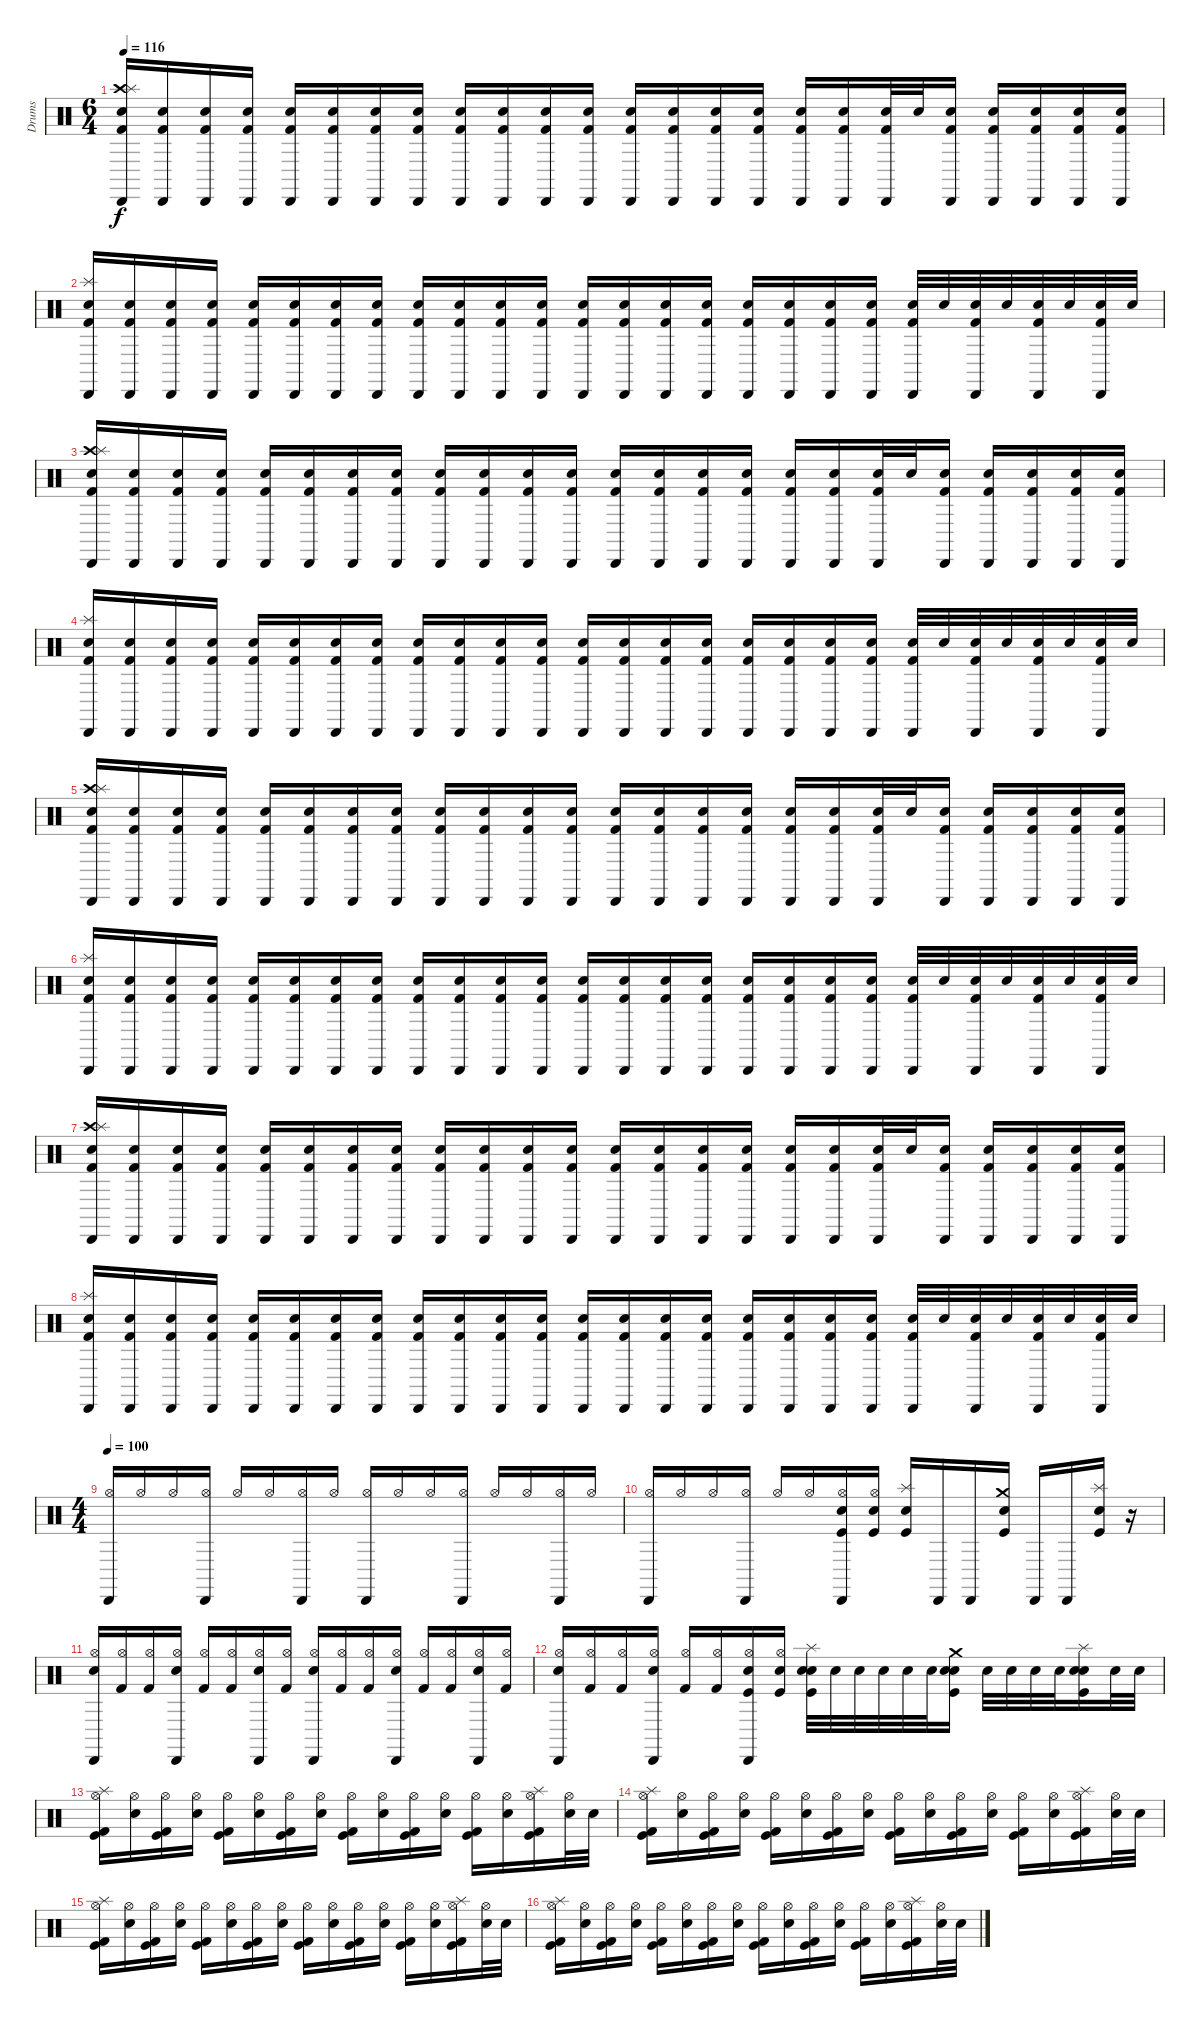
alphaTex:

\track ("Drums" "Drums") {instrument percussion}
\staff {score}
\articulation defaults
\ts (6 4)
\tempo 116
\clef neutral
\ks c
("Crash high (hit)" "Splash (hit)" "Cabasa (hit)" "Kick (hit) 2" "Electric Snare (hit)").16{dy f} ("Cabasa (hit)" "Kick (hit) 2" "Electric Snare (hit)").16 ("Cabasa (hit)" "Kick (hit) 2" "Electric Snare (hit)").16 ("Cabasa (hit)" "Kick (hit) 2" "Electric Snare (hit)").16 ("Cabasa (hit)" "Kick (hit) 2" "Electric Snare (hit)").16 ("Cabasa (hit)" "Kick (hit) 2" "Electric Snare (hit)").16 ("Cabasa (hit)" "Kick (hit) 2" "Electric Snare (hit)").16 ("Cabasa (hit)" "Kick (hit) 2" "Electric Snare (hit)").16 ("Cabasa (hit)" "Kick (hit) 2" "Electric Snare (hit)").16 ("Cabasa (hit)" "Kick (hit) 2" "Electric Snare (hit)").16 ("Cabasa (hit)" "Kick (hit) 2" "Electric Snare (hit)").16 ("Cabasa (hit)" "Kick (hit) 2" "Electric Snare (hit)").16 ("Cabasa (hit)" "Kick (hit) 2" "Electric Snare (hit)").16 ("Cabasa (hit)" "Kick (hit) 2" "Electric Snare (hit)").16 ("Cabasa (hit)" "Kick (hit) 2" "Electric Snare (hit)").16 ("Cabasa (hit)" "Kick (hit) 2" "Electric Snare (hit)").16 ("Cabasa (hit)" "Kick (hit) 2" "Electric Snare (hit)").16 ("Cabasa (hit)" "Kick (hit) 2" "Electric Snare (hit)").16 ("Cabasa (hit)" "Kick (hit) 2" "Electric Snare (hit)").32 "Electric Snare (hit)".32 ("Cabasa (hit)" "Kick (hit) 2" "Electric Snare (hit)").16 ("Cabasa (hit)" "Kick (hit) 2" "Electric Snare (hit)").16 ("Cabasa (hit)" "Kick (hit) 2" "Electric Snare (hit)").16 ("Cabasa (hit)" "Kick (hit) 2" "Electric Snare (hit)").16 ("Cabasa (hit)" "Kick (hit) 2" "Electric Snare (hit)").16 |
("Cabasa (hit)" "Splash (hit)" "Electric Snare (hit)" "Kick (hit) 2").16 ("Cabasa (hit)" "Kick (hit) 2" "Electric Snare (hit)").16 ("Cabasa (hit)" "Kick (hit) 2" "Electric Snare (hit)").16 ("Cabasa (hit)" "Kick (hit) 2" "Electric Snare (hit)").16 ("Cabasa (hit)" "Kick (hit) 2" "Electric Snare (hit)").16 ("Cabasa (hit)" "Kick (hit) 2" "Electric Snare (hit)").16 ("Cabasa (hit)" "Kick (hit) 2" "Electric Snare (hit)").16 ("Cabasa (hit)" "Kick (hit) 2" "Electric Snare (hit)").16 ("Cabasa (hit)" "Kick (hit) 2" "Electric Snare (hit)").16 ("Cabasa (hit)" "Kick (hit) 2" "Electric Snare (hit)").16 ("Cabasa (hit)" "Kick (hit) 2" "Electric Snare (hit)").16 ("Cabasa (hit)" "Kick (hit) 2" "Electric Snare (hit)").16 ("Cabasa (hit)" "Kick (hit) 2" "Electric Snare (hit)").16 ("Cabasa (hit)" "Kick (hit) 2" "Electric Snare (hit)").16 ("Cabasa (hit)" "Kick (hit) 2" "Electric Snare (hit)").16 ("Cabasa (hit)" "Kick (hit) 2" "Electric Snare (hit)").16 ("Cabasa (hit)" "Kick (hit) 2" "Electric Snare (hit)").16 ("Cabasa (hit)" "Kick (hit) 2" "Electric Snare (hit)").16 ("Cabasa (hit)" "Kick (hit) 2" "Electric Snare (hit)").16 ("Cabasa (hit)" "Kick (hit) 2" "Electric Snare (hit)").16 ("Cabasa (hit)" "Kick (hit) 2" "Electric Snare (hit)").32 "Electric Snare (hit)".32 ("Cabasa (hit)" "Kick (hit) 2" "Electric Snare (hit)").32 "Electric Snare (hit)".32 ("Cabasa (hit)" "Kick (hit) 2" "Electric Snare (hit)").32 "Electric Snare (hit)".32 ("Cabasa (hit)" "Kick (hit) 2" "Electric Snare (hit)").32 "Electric Snare (hit)".32 |
("Crash high (hit)" "Splash (hit)" "Cabasa (hit)" "Kick (hit) 2" "Electric Snare (hit)").16 ("Cabasa (hit)" "Kick (hit) 2" "Electric Snare (hit)").16 ("Cabasa (hit)" "Kick (hit) 2" "Electric Snare (hit)").16 ("Cabasa (hit)" "Kick (hit) 2" "Electric Snare (hit)").16 ("Cabasa (hit)" "Kick (hit) 2" "Electric Snare (hit)").16 ("Cabasa (hit)" "Kick (hit) 2" "Electric Snare (hit)").16 ("Cabasa (hit)" "Kick (hit) 2" "Electric Snare (hit)").16 ("Cabasa (hit)" "Kick (hit) 2" "Electric Snare (hit)").16 ("Cabasa (hit)" "Kick (hit) 2" "Electric Snare (hit)").16 ("Cabasa (hit)" "Kick (hit) 2" "Electric Snare (hit)").16 ("Cabasa (hit)" "Kick (hit) 2" "Electric Snare (hit)").16 ("Cabasa (hit)" "Kick (hit) 2" "Electric Snare (hit)").16 ("Cabasa (hit)" "Kick (hit) 2" "Electric Snare (hit)").16 ("Cabasa (hit)" "Kick (hit) 2" "Electric Snare (hit)").16 ("Cabasa (hit)" "Kick (hit) 2" "Electric Snare (hit)").16 ("Cabasa (hit)" "Kick (hit) 2" "Electric Snare (hit)").16 ("Cabasa (hit)" "Kick (hit) 2" "Electric Snare (hit)").16 ("Cabasa (hit)" "Kick (hit) 2" "Electric Snare (hit)").16 ("Cabasa (hit)" "Kick (hit) 2" "Electric Snare (hit)").32 "Electric Snare (hit)".32 ("Cabasa (hit)" "Kick (hit) 2" "Electric Snare (hit)").16 ("Cabasa (hit)" "Kick (hit) 2" "Electric Snare (hit)").16 ("Cabasa (hit)" "Kick (hit) 2" "Electric Snare (hit)").16 ("Cabasa (hit)" "Kick (hit) 2" "Electric Snare (hit)").16 ("Cabasa (hit)" "Kick (hit) 2" "Electric Snare (hit)").16 |
("Cabasa (hit)" "Splash (hit)" "Electric Snare (hit)" "Kick (hit) 2").16 ("Cabasa (hit)" "Kick (hit) 2" "Electric Snare (hit)").16 ("Cabasa (hit)" "Kick (hit) 2" "Electric Snare (hit)").16 ("Cabasa (hit)" "Kick (hit) 2" "Electric Snare (hit)").16 ("Cabasa (hit)" "Kick (hit) 2" "Electric Snare (hit)").16 ("Cabasa (hit)" "Kick (hit) 2" "Electric Snare (hit)").16 ("Cabasa (hit)" "Kick (hit) 2" "Electric Snare (hit)").16 ("Cabasa (hit)" "Kick (hit) 2" "Electric Snare (hit)").16 ("Cabasa (hit)" "Kick (hit) 2" "Electric Snare (hit)").16 ("Cabasa (hit)" "Kick (hit) 2" "Electric Snare (hit)").16 ("Cabasa (hit)" "Kick (hit) 2" "Electric Snare (hit)").16 ("Cabasa (hit)" "Kick (hit) 2" "Electric Snare (hit)").16 ("Cabasa (hit)" "Kick (hit) 2" "Electric Snare (hit)").16 ("Cabasa (hit)" "Kick (hit) 2" "Electric Snare (hit)").16 ("Cabasa (hit)" "Kick (hit) 2" "Electric Snare (hit)").16 ("Cabasa (hit)" "Kick (hit) 2" "Electric Snare (hit)").16 ("Cabasa (hit)" "Kick (hit) 2" "Electric Snare (hit)").16 ("Cabasa (hit)" "Kick (hit) 2" "Electric Snare (hit)").16 ("Cabasa (hit)" "Kick (hit) 2" "Electric Snare (hit)").16 ("Cabasa (hit)" "Kick (hit) 2" "Electric Snare (hit)").16 ("Cabasa (hit)" "Kick (hit) 2" "Electric Snare (hit)").32 "Electric Snare (hit)".32 ("Cabasa (hit)" "Kick (hit) 2" "Electric Snare (hit)").32 "Electric Snare (hit)".32 ("Cabasa (hit)" "Kick (hit) 2" "Electric Snare (hit)").32 "Electric Snare (hit)".32 ("Cabasa (hit)" "Kick (hit) 2" "Electric Snare (hit)").32 "Electric Snare (hit)".32 |
("Crash high (hit)" "Splash (hit)" "Cabasa (hit)" "Kick (hit) 2" "Electric Snare (hit)").16 ("Cabasa (hit)" "Kick (hit) 2" "Electric Snare (hit)").16 ("Cabasa (hit)" "Kick (hit) 2" "Electric Snare (hit)").16 ("Cabasa (hit)" "Kick (hit) 2" "Electric Snare (hit)").16 ("Cabasa (hit)" "Kick (hit) 2" "Electric Snare (hit)").16 ("Cabasa (hit)" "Kick (hit) 2" "Electric Snare (hit)").16 ("Cabasa (hit)" "Kick (hit) 2" "Electric Snare (hit)").16 ("Cabasa (hit)" "Kick (hit) 2" "Electric Snare (hit)").16 ("Cabasa (hit)" "Kick (hit) 2" "Electric Snare (hit)").16 ("Cabasa (hit)" "Kick (hit) 2" "Electric Snare (hit)").16 ("Cabasa (hit)" "Kick (hit) 2" "Electric Snare (hit)").16 ("Cabasa (hit)" "Kick (hit) 2" "Electric Snare (hit)").16 ("Cabasa (hit)" "Kick (hit) 2" "Electric Snare (hit)").16 ("Cabasa (hit)" "Kick (hit) 2" "Electric Snare (hit)").16 ("Cabasa (hit)" "Kick (hit) 2" "Electric Snare (hit)").16 ("Cabasa (hit)" "Kick (hit) 2" "Electric Snare (hit)").16 ("Cabasa (hit)" "Kick (hit) 2" "Electric Snare (hit)").16 ("Cabasa (hit)" "Kick (hit) 2" "Electric Snare (hit)").16 ("Cabasa (hit)" "Kick (hit) 2" "Electric Snare (hit)").32 "Electric Snare (hit)".32 ("Cabasa (hit)" "Kick (hit) 2" "Electric Snare (hit)").16 ("Cabasa (hit)" "Kick (hit) 2" "Electric Snare (hit)").16 ("Cabasa (hit)" "Kick (hit) 2" "Electric Snare (hit)").16 ("Cabasa (hit)" "Kick (hit) 2" "Electric Snare (hit)").16 ("Cabasa (hit)" "Kick (hit) 2" "Electric Snare (hit)").16 |
("Cabasa (hit)" "Splash (hit)" "Electric Snare (hit)" "Kick (hit) 2").16 ("Cabasa (hit)" "Kick (hit) 2" "Electric Snare (hit)").16 ("Cabasa (hit)" "Kick (hit) 2" "Electric Snare (hit)").16 ("Cabasa (hit)" "Kick (hit) 2" "Electric Snare (hit)").16 ("Cabasa (hit)" "Kick (hit) 2" "Electric Snare (hit)").16 ("Cabasa (hit)" "Kick (hit) 2" "Electric Snare (hit)").16 ("Cabasa (hit)" "Kick (hit) 2" "Electric Snare (hit)").16 ("Cabasa (hit)" "Kick (hit) 2" "Electric Snare (hit)").16 ("Cabasa (hit)" "Kick (hit) 2" "Electric Snare (hit)").16 ("Cabasa (hit)" "Kick (hit) 2" "Electric Snare (hit)").16 ("Cabasa (hit)" "Kick (hit) 2" "Electric Snare (hit)").16 ("Cabasa (hit)" "Kick (hit) 2" "Electric Snare (hit)").16 ("Cabasa (hit)" "Kick (hit) 2" "Electric Snare (hit)").16 ("Cabasa (hit)" "Kick (hit) 2" "Electric Snare (hit)").16 ("Cabasa (hit)" "Kick (hit) 2" "Electric Snare (hit)").16 ("Cabasa (hit)" "Kick (hit) 2" "Electric Snare (hit)").16 ("Cabasa (hit)" "Kick (hit) 2" "Electric Snare (hit)").16 ("Cabasa (hit)" "Kick (hit) 2" "Electric Snare (hit)").16 ("Cabasa (hit)" "Kick (hit) 2" "Electric Snare (hit)").16 ("Cabasa (hit)" "Kick (hit) 2" "Electric Snare (hit)").16 ("Cabasa (hit)" "Kick (hit) 2" "Electric Snare (hit)").32 "Electric Snare (hit)".32 ("Cabasa (hit)" "Kick (hit) 2" "Electric Snare (hit)").32 "Electric Snare (hit)".32 ("Cabasa (hit)" "Kick (hit) 2" "Electric Snare (hit)").32 "Electric Snare (hit)".32 ("Cabasa (hit)" "Kick (hit) 2" "Electric Snare (hit)").32 "Electric Snare (hit)".32 |
("Crash high (hit)" "Splash (hit)" "Cabasa (hit)" "Kick (hit) 2" "Electric Snare (hit)").16 ("Cabasa (hit)" "Kick (hit) 2" "Electric Snare (hit)").16 ("Cabasa (hit)" "Kick (hit) 2" "Electric Snare (hit)").16 ("Cabasa (hit)" "Kick (hit) 2" "Electric Snare (hit)").16 ("Cabasa (hit)" "Kick (hit) 2" "Electric Snare (hit)").16 ("Cabasa (hit)" "Kick (hit) 2" "Electric Snare (hit)").16 ("Cabasa (hit)" "Kick (hit) 2" "Electric Snare (hit)").16 ("Cabasa (hit)" "Kick (hit) 2" "Electric Snare (hit)").16 ("Cabasa (hit)" "Kick (hit) 2" "Electric Snare (hit)").16 ("Cabasa (hit)" "Kick (hit) 2" "Electric Snare (hit)").16 ("Cabasa (hit)" "Kick (hit) 2" "Electric Snare (hit)").16 ("Cabasa (hit)" "Kick (hit) 2" "Electric Snare (hit)").16 ("Cabasa (hit)" "Kick (hit) 2" "Electric Snare (hit)").16 ("Cabasa (hit)" "Kick (hit) 2" "Electric Snare (hit)").16 ("Cabasa (hit)" "Kick (hit) 2" "Electric Snare (hit)").16 ("Cabasa (hit)" "Kick (hit) 2" "Electric Snare (hit)").16 ("Cabasa (hit)" "Kick (hit) 2" "Electric Snare (hit)").16 ("Cabasa (hit)" "Kick (hit) 2" "Electric Snare (hit)").16 ("Cabasa (hit)" "Kick (hit) 2" "Electric Snare (hit)").32 "Electric Snare (hit)".32 ("Cabasa (hit)" "Kick (hit) 2" "Electric Snare (hit)").16 ("Cabasa (hit)" "Kick (hit) 2" "Electric Snare (hit)").16 ("Cabasa (hit)" "Kick (hit) 2" "Electric Snare (hit)").16 ("Cabasa (hit)" "Kick (hit) 2" "Electric Snare (hit)").16 ("Cabasa (hit)" "Kick (hit) 2" "Electric Snare (hit)").16 |
("Cabasa (hit)" "Splash (hit)" "Electric Snare (hit)" "Kick (hit) 2").16 ("Cabasa (hit)" "Kick (hit) 2" "Electric Snare (hit)").16 ("Cabasa (hit)" "Kick (hit) 2" "Electric Snare (hit)").16 ("Cabasa (hit)" "Kick (hit) 2" "Electric Snare (hit)").16 ("Cabasa (hit)" "Kick (hit) 2" "Electric Snare (hit)").16 ("Cabasa (hit)" "Kick (hit) 2" "Electric Snare (hit)").16 ("Cabasa (hit)" "Kick (hit) 2" "Electric Snare (hit)").16 ("Cabasa (hit)" "Kick (hit) 2" "Electric Snare (hit)").16 ("Cabasa (hit)" "Kick (hit) 2" "Electric Snare (hit)").16 ("Cabasa (hit)" "Kick (hit) 2" "Electric Snare (hit)").16 ("Cabasa (hit)" "Kick (hit) 2" "Electric Snare (hit)").16 ("Cabasa (hit)" "Kick (hit) 2" "Electric Snare (hit)").16 ("Cabasa (hit)" "Kick (hit) 2" "Electric Snare (hit)").16 ("Cabasa (hit)" "Kick (hit) 2" "Electric Snare (hit)").16 ("Cabasa (hit)" "Kick (hit) 2" "Electric Snare (hit)").16 ("Cabasa (hit)" "Kick (hit) 2" "Electric Snare (hit)").16 ("Cabasa (hit)" "Kick (hit) 2" "Electric Snare (hit)").16 ("Cabasa (hit)" "Kick (hit) 2" "Electric Snare (hit)").16 ("Cabasa (hit)" "Kick (hit) 2" "Electric Snare (hit)").16 ("Cabasa (hit)" "Kick (hit) 2" "Electric Snare (hit)").16 ("Cabasa (hit)" "Kick (hit) 2" "Electric Snare (hit)").32 "Electric Snare (hit)".32 ("Cabasa (hit)" "Kick (hit) 2" "Electric Snare (hit)").32 "Electric Snare (hit)".32 ("Cabasa (hit)" "Kick (hit) 2" "Electric Snare (hit)").32 "Electric Snare (hit)".32 ("Cabasa (hit)" "Kick (hit) 2" "Electric Snare (hit)").32 "Electric Snare (hit)".32 |
\ts (4 4)
\tempo 100
("Cabasa (hit)" "Hi-Hat (open)").16 "Hi-Hat (open)".16 "Hi-Hat (open)".16 ("Cabasa (hit)" "Hi-Hat (open)").16 "Hi-Hat (open)".16 "Hi-Hat (open)".16 ("Cabasa (hit)" "Hi-Hat (open)").16 "Hi-Hat (open)".16 ("Cabasa (hit)" "Hi-Hat (open)").16 "Hi-Hat (open)".16 "Hi-Hat (open)".16 ("Cabasa (hit)" "Hi-Hat (open)").16 "Hi-Hat (open)".16 "Hi-Hat (open)".16 ("Cabasa (hit)" "Hi-Hat (open)").16 "Hi-Hat (open)".16 |
("Cabasa (hit)" "Hi-Hat (open)").16 "Hi-Hat (open)".16 "Hi-Hat (open)".16 ("Cabasa (hit)" "Hi-Hat (open)").16 "Hi-Hat (open)".16 "Hi-Hat (open)".16 ("Cabasa (hit)" "Hi-Hat (open)" "Electric Snare (hit)" "Kick (hit)").16 ("Hi-Hat (open)" "Electric Snare (hit)" "Kick (hit)").16 ("Kick (hit)" "Snare (hit) 2" "Splash (hit)").16 "Cabasa (hit)".16 "Cabasa (hit)".16 ("Kick (hit)" "Crash medium (hit)" "Snare (hit) 2").16 "Cabasa (hit)".16 "Cabasa (hit)".16 ("Kick (hit)" "Splash (hit)" "Snare (hit) 2").16 r.16 |
("Electric Snare (hit)" "Cabasa (hit)" "Hi-Hat (open)").16 ("Kick (hit) 2" "Hi-Hat (open)").16 ("Kick (hit) 2" "Hi-Hat (open)").16 ("Electric Snare (hit)" "Cabasa (hit)" "Hi-Hat (open)").16 ("Kick (hit) 2" "Hi-Hat (open)").16 ("Kick (hit) 2" "Hi-Hat (open)").16 ("Electric Snare (hit)" "Cabasa (hit)" "Hi-Hat (open)").16 ("Kick (hit) 2" "Hi-Hat (open)").16 ("Electric Snare (hit)" "Cabasa (hit)" "Hi-Hat (open)").16 ("Kick (hit) 2" "Hi-Hat (open)").16 ("Kick (hit) 2" "Hi-Hat (open)").16 ("Electric Snare (hit)" "Cabasa (hit)" "Hi-Hat (open)").16 ("Kick (hit) 2" "Hi-Hat (open)").16 ("Kick (hit) 2" "Hi-Hat (open)").16 ("Electric Snare (hit)" "Cabasa (hit)" "Hi-Hat (open)").16 ("Kick (hit) 2" "Hi-Hat (open)").16 |
("Electric Snare (hit)" "Cabasa (hit)" "Hi-Hat (open)").16 ("Kick (hit) 2" "Hi-Hat (open)").16 ("Kick (hit) 2" "Hi-Hat (open)").16 ("Electric Snare (hit)" "Cabasa (hit)" "Hi-Hat (open)").16 ("Kick (hit) 2" "Hi-Hat (open)").16 ("Kick (hit) 2" "Hi-Hat (open)").16 ("Cabasa (hit)" "Hi-Hat (open)" "Electric Snare (hit)" "Kick (hit)").16 ("Hi-Hat (open)" "Electric Snare (hit)" "Kick (hit)").16 ("Electric Snare (hit)" "Kick (hit)" "Snare (hit) 2" "Splash (hit)").32 "Electric Snare (hit)".32 "Electric Snare (hit)".32 "Electric Snare (hit)".32 "Electric Snare (hit)".32 "Electric Snare (hit)".32 ("Electric Snare (hit)" "Kick (hit)" "Crash medium (hit)" "Snare (hit) 2").16 "Electric Snare (hit)".32 "Electric Snare (hit)".32 "Electric Snare (hit)".32 "Electric Snare (hit)".32 ("Electric Snare (hit)" "Kick (hit)" "Splash (hit)" "Snare (hit) 2").16 "Electric Snare (hit)".32 "Electric Snare (hit)".32 |
("Splash (hit)" "Hi-Hat (open)" "Kick (hit)" "Kick (hit) 2").16 ("Hi-Hat (open)" "Snare (hit) 2").16 ("Hi-Hat (open)" "Kick (hit)" "Kick (hit) 2").16 ("Hi-Hat (open)" "Snare (hit) 2").16 ("Hi-Hat (open)" "Kick (hit)" "Kick (hit) 2").16 ("Hi-Hat (open)" "Snare (hit) 2").16 ("Hi-Hat (open)" "Kick (hit)" "Kick (hit) 2").16 ("Hi-Hat (open)" "Snare (hit) 2").16 ("Hi-Hat (open)" "Kick (hit)" "Kick (hit) 2").16 ("Hi-Hat (open)" "Snare (hit) 2").16 ("Hi-Hat (open)" "Kick (hit)" "Kick (hit) 2").16 ("Hi-Hat (open)" "Snare (hit) 2").16 ("Hi-Hat (open)" "Kick (hit)" "Kick (hit) 2").16 ("Hi-Hat (open)" "Snare (hit) 2").16 ("Splash (hit)" "Hi-Hat (open)" "Kick (hit)" "Kick (hit) 2").16 ("Hi-Hat (open)" "Snare (hit) 2").32 "Snare (hit) 2".32 |
("Splash (hit)" "Hi-Hat (open)" "Kick (hit)" "Kick (hit) 2").16 ("Hi-Hat (open)" "Snare (hit) 2").16 ("Hi-Hat (open)" "Kick (hit)" "Kick (hit) 2").16 ("Hi-Hat (open)" "Snare (hit) 2").16 ("Hi-Hat (open)" "Kick (hit)" "Kick (hit) 2").16 ("Hi-Hat (open)" "Snare (hit) 2").16 ("Hi-Hat (open)" "Kick (hit)" "Kick (hit) 2").16 ("Hi-Hat (open)" "Snare (hit) 2").16 ("Hi-Hat (open)" "Kick (hit)" "Kick (hit) 2").16 ("Hi-Hat (open)" "Snare (hit) 2").16 ("Hi-Hat (open)" "Kick (hit)" "Kick (hit) 2").16 ("Hi-Hat (open)" "Snare (hit) 2").16 ("Hi-Hat (open)" "Kick (hit)" "Kick (hit) 2").16 ("Hi-Hat (open)" "Snare (hit) 2").16 ("Splash (hit)" "Hi-Hat (open)" "Kick (hit)" "Kick (hit) 2").16 ("Hi-Hat (open)" "Snare (hit) 2").32 "Snare (hit) 2".32 |
("Splash (hit)" "Hi-Hat (open)" "Kick (hit)" "Kick (hit) 2").16 ("Hi-Hat (open)" "Snare (hit) 2").16 ("Hi-Hat (open)" "Kick (hit)" "Kick (hit) 2").16 ("Hi-Hat (open)" "Snare (hit) 2").16 ("Hi-Hat (open)" "Kick (hit)" "Kick (hit) 2").16 ("Hi-Hat (open)" "Snare (hit) 2").16 ("Hi-Hat (open)" "Kick (hit)" "Kick (hit) 2").16 ("Hi-Hat (open)" "Snare (hit) 2").16 ("Hi-Hat (open)" "Kick (hit)" "Kick (hit) 2").16 ("Hi-Hat (open)" "Snare (hit) 2").16 ("Hi-Hat (open)" "Kick (hit)" "Kick (hit) 2").16 ("Hi-Hat (open)" "Snare (hit) 2").16 ("Hi-Hat (open)" "Kick (hit)" "Kick (hit) 2").16 ("Hi-Hat (open)" "Snare (hit) 2").16 ("Splash (hit)" "Hi-Hat (open)" "Kick (hit)" "Kick (hit) 2").16 ("Hi-Hat (open)" "Snare (hit) 2").32 "Snare (hit) 2".32 |
("Splash (hit)" "Hi-Hat (open)" "Kick (hit)" "Kick (hit) 2").16 ("Hi-Hat (open)" "Snare (hit) 2").16 ("Hi-Hat (open)" "Kick (hit)" "Kick (hit) 2").16 ("Hi-Hat (open)" "Snare (hit) 2").16 ("Hi-Hat (open)" "Kick (hit)" "Kick (hit) 2").16 ("Hi-Hat (open)" "Snare (hit) 2").16 ("Hi-Hat (open)" "Kick (hit)" "Kick (hit) 2").16 ("Hi-Hat (open)" "Snare (hit) 2").16 ("Hi-Hat (open)" "Kick (hit)" "Kick (hit) 2").16 ("Hi-Hat (open)" "Snare (hit) 2").16 ("Hi-Hat (open)" "Kick (hit)" "Kick (hit) 2").16 ("Hi-Hat (open)" "Snare (hit) 2").16 ("Hi-Hat (open)" "Kick (hit)" "Kick (hit) 2").16 ("Hi-Hat (open)" "Snare (hit) 2").16 ("Splash (hit)" "Hi-Hat (open)" "Kick (hit)" "Kick (hit) 2").16 ("Hi-Hat (open)" "Snare (hit) 2").32 "Snare (hit) 2".32
